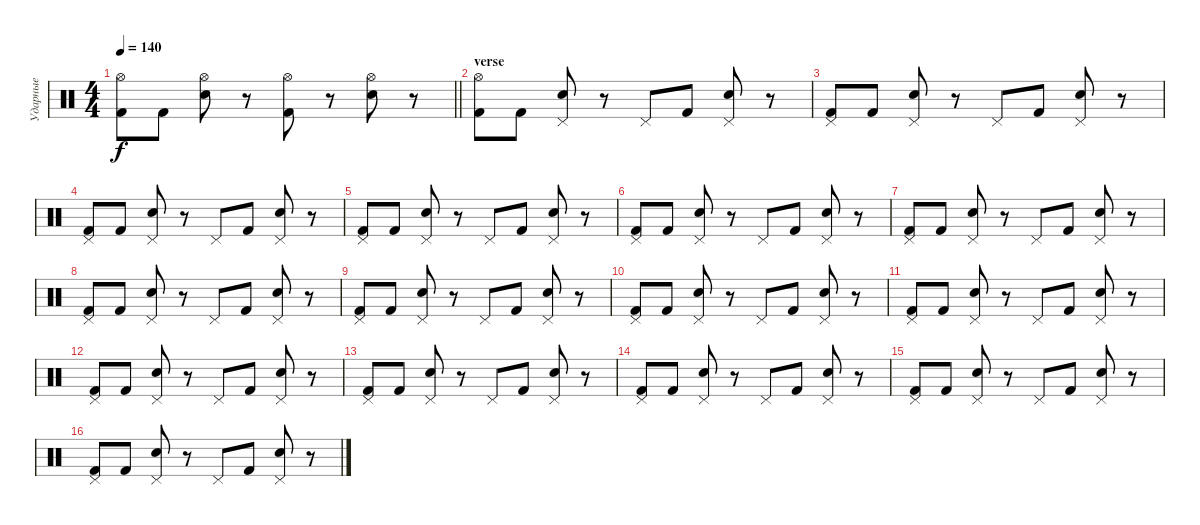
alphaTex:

\track ("Ударные" "Ударные") {instrument percussion}
\staff {score}
\articulation defaults
\ts (4 4)
\tempo 140
\clef neutral
\barLineRight lightlight
\ks c
("Hi-Hat (open)" "Kick (hit) 2").8{dy f} "Kick (hit) 2".8 ("Hi-Hat (open)" "Snare (hit) 2").8 r.8 ("Hi-Hat (open)" "Kick (hit) 2").8 r.8 ("Hi-Hat (open)" "Snare (hit) 2").8 r.8 |
\section ("" "verse")
("Hi-Hat (open)" "Kick (hit) 2").8 "Kick (hit) 2".8 ("Pedal Hi-Hat (hit)" "Snare (hit) 2").8 r.8 "Pedal Hi-Hat (hit)".8 "Kick (hit) 2".8 ("Pedal Hi-Hat (hit)" "Snare (hit) 2").8 r.8 |
("Pedal Hi-Hat (hit)" "Kick (hit) 2").8 "Kick (hit) 2".8 ("Pedal Hi-Hat (hit)" "Snare (hit) 2").8 r.8 "Pedal Hi-Hat (hit)".8 "Kick (hit) 2".8 ("Pedal Hi-Hat (hit)" "Snare (hit) 2").8 r.8 |
("Pedal Hi-Hat (hit)" "Kick (hit) 2").8 "Kick (hit) 2".8 ("Pedal Hi-Hat (hit)" "Snare (hit) 2").8 r.8 "Pedal Hi-Hat (hit)".8 "Kick (hit) 2".8 ("Pedal Hi-Hat (hit)" "Snare (hit) 2").8 r.8 |
("Pedal Hi-Hat (hit)" "Kick (hit) 2").8 "Kick (hit) 2".8 ("Pedal Hi-Hat (hit)" "Snare (hit) 2").8 r.8 "Pedal Hi-Hat (hit)".8 "Kick (hit) 2".8 ("Pedal Hi-Hat (hit)" "Snare (hit) 2").8 r.8 |
("Pedal Hi-Hat (hit)" "Kick (hit) 2").8 "Kick (hit) 2".8 ("Pedal Hi-Hat (hit)" "Snare (hit) 2").8 r.8 "Pedal Hi-Hat (hit)".8 "Kick (hit) 2".8 ("Pedal Hi-Hat (hit)" "Snare (hit) 2").8 r.8 |
("Pedal Hi-Hat (hit)" "Kick (hit) 2").8 "Kick (hit) 2".8 ("Pedal Hi-Hat (hit)" "Snare (hit) 2").8 r.8 "Pedal Hi-Hat (hit)".8 "Kick (hit) 2".8 ("Pedal Hi-Hat (hit)" "Snare (hit) 2").8 r.8 |
("Pedal Hi-Hat (hit)" "Kick (hit) 2").8 "Kick (hit) 2".8 ("Pedal Hi-Hat (hit)" "Snare (hit) 2").8 r.8 "Pedal Hi-Hat (hit)".8 "Kick (hit) 2".8 ("Pedal Hi-Hat (hit)" "Snare (hit) 2").8 r.8 |
("Pedal Hi-Hat (hit)" "Kick (hit) 2").8 "Kick (hit) 2".8 ("Pedal Hi-Hat (hit)" "Snare (hit) 2").8 r.8 "Pedal Hi-Hat (hit)".8 "Kick (hit) 2".8 ("Pedal Hi-Hat (hit)" "Snare (hit) 2").8 r.8 |
("Pedal Hi-Hat (hit)" "Kick (hit) 2").8 "Kick (hit) 2".8 ("Pedal Hi-Hat (hit)" "Snare (hit) 2").8 r.8 "Pedal Hi-Hat (hit)".8 "Kick (hit) 2".8 ("Pedal Hi-Hat (hit)" "Snare (hit) 2").8 r.8 |
("Pedal Hi-Hat (hit)" "Kick (hit) 2").8 "Kick (hit) 2".8 ("Pedal Hi-Hat (hit)" "Snare (hit) 2").8 r.8 "Pedal Hi-Hat (hit)".8 "Kick (hit) 2".8 ("Pedal Hi-Hat (hit)" "Snare (hit) 2").8 r.8 |
("Pedal Hi-Hat (hit)" "Kick (hit) 2").8 "Kick (hit) 2".8 ("Pedal Hi-Hat (hit)" "Snare (hit) 2").8 r.8 "Pedal Hi-Hat (hit)".8 "Kick (hit) 2".8 ("Pedal Hi-Hat (hit)" "Snare (hit) 2").8 r.8 |
("Pedal Hi-Hat (hit)" "Kick (hit) 2").8 "Kick (hit) 2".8 ("Pedal Hi-Hat (hit)" "Snare (hit) 2").8 r.8 "Pedal Hi-Hat (hit)".8 "Kick (hit) 2".8 ("Pedal Hi-Hat (hit)" "Snare (hit) 2").8 r.8 |
("Pedal Hi-Hat (hit)" "Kick (hit) 2").8 "Kick (hit) 2".8 ("Pedal Hi-Hat (hit)" "Snare (hit) 2").8 r.8 "Pedal Hi-Hat (hit)".8 "Kick (hit) 2".8 ("Pedal Hi-Hat (hit)" "Snare (hit) 2").8 r.8 |
("Pedal Hi-Hat (hit)" "Kick (hit) 2").8 "Kick (hit) 2".8 ("Pedal Hi-Hat (hit)" "Snare (hit) 2").8 r.8 "Pedal Hi-Hat (hit)".8 "Kick (hit) 2".8 ("Pedal Hi-Hat (hit)" "Snare (hit) 2").8 r.8 |
("Pedal Hi-Hat (hit)" "Kick (hit) 2").8 "Kick (hit) 2".8 ("Pedal Hi-Hat (hit)" "Snare (hit) 2").8 r.8 "Pedal Hi-Hat (hit)".8 "Kick (hit) 2".8 ("Pedal Hi-Hat (hit)" "Snare (hit) 2").8 r.8
